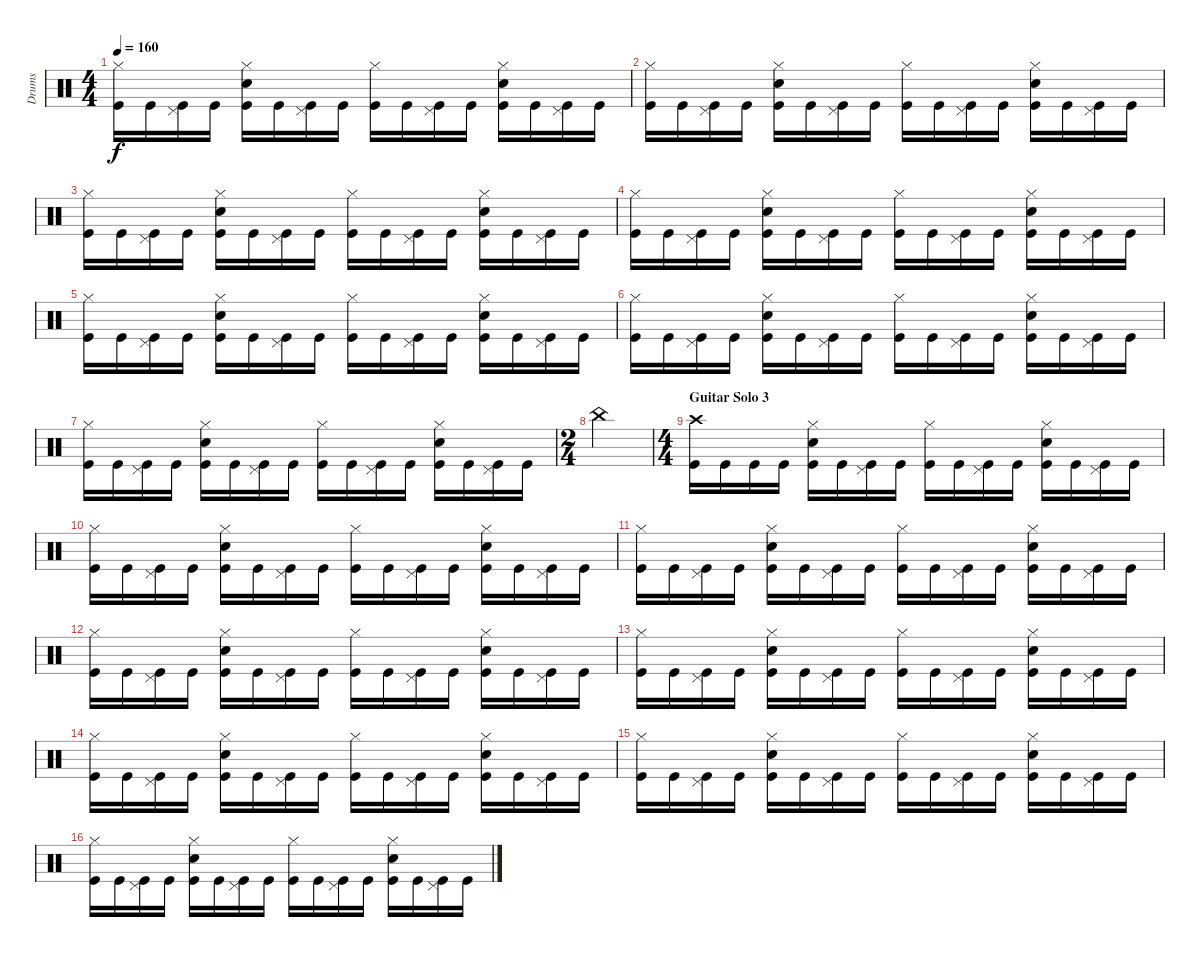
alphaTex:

\track ("Drums" "Drums") {instrument percussion}
\staff {score}
\articulation defaults
\ts (4 4)
\tempo 160
\clef neutral
\ks c
("Hi-Hat (closed)" "Kick (hit)").16{dy f} "Kick (hit)".16 ("Pedal Hi-Hat (hit)" "Kick (hit)").16 "Kick (hit)".16 ("Hi-Hat (closed)" "Electric Snare (hit)" "Kick (hit)").16 "Kick (hit)".16 ("Pedal Hi-Hat (hit)" "Kick (hit)").16 "Kick (hit)".16 ("Hi-Hat (closed)" "Kick (hit)").16 "Kick (hit)".16 ("Pedal Hi-Hat (hit)" "Kick (hit)").16 "Kick (hit)".16 ("Hi-Hat (closed)" "Electric Snare (hit)" "Kick (hit)").16 "Kick (hit)".16 ("Pedal Hi-Hat (hit)" "Kick (hit)").16 "Kick (hit)".16 |
("Hi-Hat (closed)" "Kick (hit)").16 "Kick (hit)".16 ("Pedal Hi-Hat (hit)" "Kick (hit)").16 "Kick (hit)".16 ("Hi-Hat (closed)" "Electric Snare (hit)" "Kick (hit)").16 "Kick (hit)".16 ("Pedal Hi-Hat (hit)" "Kick (hit)").16 "Kick (hit)".16 ("Hi-Hat (closed)" "Kick (hit)").16 "Kick (hit)".16 ("Pedal Hi-Hat (hit)" "Kick (hit)").16 "Kick (hit)".16 ("Hi-Hat (closed)" "Electric Snare (hit)" "Kick (hit)").16 "Kick (hit)".16 ("Pedal Hi-Hat (hit)" "Kick (hit)").16 "Kick (hit)".16 |
("Hi-Hat (closed)" "Kick (hit)").16 "Kick (hit)".16 ("Pedal Hi-Hat (hit)" "Kick (hit)").16 "Kick (hit)".16 ("Hi-Hat (closed)" "Electric Snare (hit)" "Kick (hit)").16 "Kick (hit)".16 ("Pedal Hi-Hat (hit)" "Kick (hit)").16 "Kick (hit)".16 ("Hi-Hat (closed)" "Kick (hit)").16 "Kick (hit)".16 ("Pedal Hi-Hat (hit)" "Kick (hit)").16 "Kick (hit)".16 ("Hi-Hat (closed)" "Electric Snare (hit)" "Kick (hit)").16 "Kick (hit)".16 ("Pedal Hi-Hat (hit)" "Kick (hit)").16 "Kick (hit)".16 |
("Hi-Hat (closed)" "Kick (hit)").16 "Kick (hit)".16 ("Pedal Hi-Hat (hit)" "Kick (hit)").16 "Kick (hit)".16 ("Hi-Hat (closed)" "Electric Snare (hit)" "Kick (hit)").16 "Kick (hit)".16 ("Pedal Hi-Hat (hit)" "Kick (hit)").16 "Kick (hit)".16 ("Hi-Hat (closed)" "Kick (hit)").16 "Kick (hit)".16 ("Pedal Hi-Hat (hit)" "Kick (hit)").16 "Kick (hit)".16 ("Hi-Hat (closed)" "Electric Snare (hit)" "Kick (hit)").16 "Kick (hit)".16 ("Pedal Hi-Hat (hit)" "Kick (hit)").16 "Kick (hit)".16 |
("Hi-Hat (closed)" "Kick (hit)").16 "Kick (hit)".16 ("Pedal Hi-Hat (hit)" "Kick (hit)").16 "Kick (hit)".16 ("Hi-Hat (closed)" "Electric Snare (hit)" "Kick (hit)").16 "Kick (hit)".16 ("Pedal Hi-Hat (hit)" "Kick (hit)").16 "Kick (hit)".16 ("Hi-Hat (closed)" "Kick (hit)").16 "Kick (hit)".16 ("Pedal Hi-Hat (hit)" "Kick (hit)").16 "Kick (hit)".16 ("Hi-Hat (closed)" "Electric Snare (hit)" "Kick (hit)").16 "Kick (hit)".16 ("Pedal Hi-Hat (hit)" "Kick (hit)").16 "Kick (hit)".16 |
("Hi-Hat (closed)" "Kick (hit)").16 "Kick (hit)".16 ("Pedal Hi-Hat (hit)" "Kick (hit)").16 "Kick (hit)".16 ("Hi-Hat (closed)" "Electric Snare (hit)" "Kick (hit)").16 "Kick (hit)".16 ("Pedal Hi-Hat (hit)" "Kick (hit)").16 "Kick (hit)".16 ("Hi-Hat (closed)" "Kick (hit)").16 "Kick (hit)".16 ("Pedal Hi-Hat (hit)" "Kick (hit)").16 "Kick (hit)".16 ("Hi-Hat (closed)" "Electric Snare (hit)" "Kick (hit)").16 "Kick (hit)".16 ("Pedal Hi-Hat (hit)" "Kick (hit)").16 "Kick (hit)".16 |
("Hi-Hat (closed)" "Kick (hit)").16 "Kick (hit)".16 ("Pedal Hi-Hat (hit)" "Kick (hit)").16 "Kick (hit)".16 ("Hi-Hat (closed)" "Electric Snare (hit)" "Kick (hit)").16 "Kick (hit)".16 ("Pedal Hi-Hat (hit)" "Kick (hit)").16 "Kick (hit)".16 ("Hi-Hat (closed)" "Kick (hit)").16 "Kick (hit)".16 ("Pedal Hi-Hat (hit)" "Kick (hit)").16 "Kick (hit)".16 ("Hi-Hat (closed)" "Electric Snare (hit)" "Kick (hit)").16 "Kick (hit)".16 ("Pedal Hi-Hat (hit)" "Kick (hit)").16 "Kick (hit)".16 |
\ts (2 4)
"China (hit)".2 |
\ts (4 4)
\section ("" "Guitar Solo 3")
("Crash high (hit)" "Kick (hit)").16 "Kick (hit)".16 "Kick (hit)".16 "Kick (hit)".16 ("Hi-Hat (closed)" "Electric Snare (hit)" "Kick (hit)").16 "Kick (hit)".16 ("Pedal Hi-Hat (hit)" "Kick (hit)").16 "Kick (hit)".16 ("Hi-Hat (closed)" "Kick (hit)").16 "Kick (hit)".16 ("Pedal Hi-Hat (hit)" "Kick (hit)").16 "Kick (hit)".16 ("Hi-Hat (closed)" "Electric Snare (hit)" "Kick (hit)").16 "Kick (hit)".16 ("Pedal Hi-Hat (hit)" "Kick (hit)").16 "Kick (hit)".16 |
("Hi-Hat (closed)" "Kick (hit)").16 "Kick (hit)".16 ("Pedal Hi-Hat (hit)" "Kick (hit)").16 "Kick (hit)".16 ("Hi-Hat (closed)" "Electric Snare (hit)" "Kick (hit)").16 "Kick (hit)".16 ("Pedal Hi-Hat (hit)" "Kick (hit)").16 "Kick (hit)".16 ("Hi-Hat (closed)" "Kick (hit)").16 "Kick (hit)".16 ("Pedal Hi-Hat (hit)" "Kick (hit)").16 "Kick (hit)".16 ("Hi-Hat (closed)" "Electric Snare (hit)" "Kick (hit)").16 "Kick (hit)".16 ("Pedal Hi-Hat (hit)" "Kick (hit)").16 "Kick (hit)".16 |
("Hi-Hat (closed)" "Kick (hit)").16 "Kick (hit)".16 ("Pedal Hi-Hat (hit)" "Kick (hit)").16 "Kick (hit)".16 ("Hi-Hat (closed)" "Electric Snare (hit)" "Kick (hit)").16 "Kick (hit)".16 ("Pedal Hi-Hat (hit)" "Kick (hit)").16 "Kick (hit)".16 ("Hi-Hat (closed)" "Kick (hit)").16 "Kick (hit)".16 ("Pedal Hi-Hat (hit)" "Kick (hit)").16 "Kick (hit)".16 ("Hi-Hat (closed)" "Electric Snare (hit)" "Kick (hit)").16 "Kick (hit)".16 ("Pedal Hi-Hat (hit)" "Kick (hit)").16 "Kick (hit)".16 |
("Hi-Hat (closed)" "Kick (hit)").16 "Kick (hit)".16 ("Pedal Hi-Hat (hit)" "Kick (hit)").16 "Kick (hit)".16 ("Hi-Hat (closed)" "Electric Snare (hit)" "Kick (hit)").16 "Kick (hit)".16 ("Pedal Hi-Hat (hit)" "Kick (hit)").16 "Kick (hit)".16 ("Hi-Hat (closed)" "Kick (hit)").16 "Kick (hit)".16 ("Pedal Hi-Hat (hit)" "Kick (hit)").16 "Kick (hit)".16 ("Hi-Hat (closed)" "Electric Snare (hit)" "Kick (hit)").16 "Kick (hit)".16 ("Pedal Hi-Hat (hit)" "Kick (hit)").16 "Kick (hit)".16 |
("Hi-Hat (closed)" "Kick (hit)").16 "Kick (hit)".16 ("Pedal Hi-Hat (hit)" "Kick (hit)").16 "Kick (hit)".16 ("Hi-Hat (closed)" "Electric Snare (hit)" "Kick (hit)").16 "Kick (hit)".16 ("Pedal Hi-Hat (hit)" "Kick (hit)").16 "Kick (hit)".16 ("Hi-Hat (closed)" "Kick (hit)").16 "Kick (hit)".16 ("Pedal Hi-Hat (hit)" "Kick (hit)").16 "Kick (hit)".16 ("Hi-Hat (closed)" "Electric Snare (hit)" "Kick (hit)").16 "Kick (hit)".16 ("Pedal Hi-Hat (hit)" "Kick (hit)").16 "Kick (hit)".16 |
("Hi-Hat (closed)" "Kick (hit)").16 "Kick (hit)".16 ("Pedal Hi-Hat (hit)" "Kick (hit)").16 "Kick (hit)".16 ("Hi-Hat (closed)" "Electric Snare (hit)" "Kick (hit)").16 "Kick (hit)".16 ("Pedal Hi-Hat (hit)" "Kick (hit)").16 "Kick (hit)".16 ("Hi-Hat (closed)" "Kick (hit)").16 "Kick (hit)".16 ("Pedal Hi-Hat (hit)" "Kick (hit)").16 "Kick (hit)".16 ("Hi-Hat (closed)" "Electric Snare (hit)" "Kick (hit)").16 "Kick (hit)".16 ("Pedal Hi-Hat (hit)" "Kick (hit)").16 "Kick (hit)".16 |
("Hi-Hat (closed)" "Kick (hit)").16 "Kick (hit)".16 ("Pedal Hi-Hat (hit)" "Kick (hit)").16 "Kick (hit)".16 ("Hi-Hat (closed)" "Electric Snare (hit)" "Kick (hit)").16 "Kick (hit)".16 ("Pedal Hi-Hat (hit)" "Kick (hit)").16 "Kick (hit)".16 ("Hi-Hat (closed)" "Kick (hit)").16 "Kick (hit)".16 ("Pedal Hi-Hat (hit)" "Kick (hit)").16 "Kick (hit)".16 ("Hi-Hat (closed)" "Electric Snare (hit)" "Kick (hit)").16 "Kick (hit)".16 ("Pedal Hi-Hat (hit)" "Kick (hit)").16 "Kick (hit)".16 |
("Hi-Hat (closed)" "Kick (hit)").16 "Kick (hit)".16 ("Pedal Hi-Hat (hit)" "Kick (hit)").16 "Kick (hit)".16 ("Hi-Hat (closed)" "Electric Snare (hit)" "Kick (hit)").16 "Kick (hit)".16 ("Pedal Hi-Hat (hit)" "Kick (hit)").16 "Kick (hit)".16 ("Hi-Hat (closed)" "Kick (hit)").16 "Kick (hit)".16 ("Pedal Hi-Hat (hit)" "Kick (hit)").16 "Kick (hit)".16 ("Hi-Hat (closed)" "Electric Snare (hit)" "Kick (hit)").16 "Kick (hit)".16 ("Pedal Hi-Hat (hit)" "Kick (hit)").16 "Kick (hit)".16
